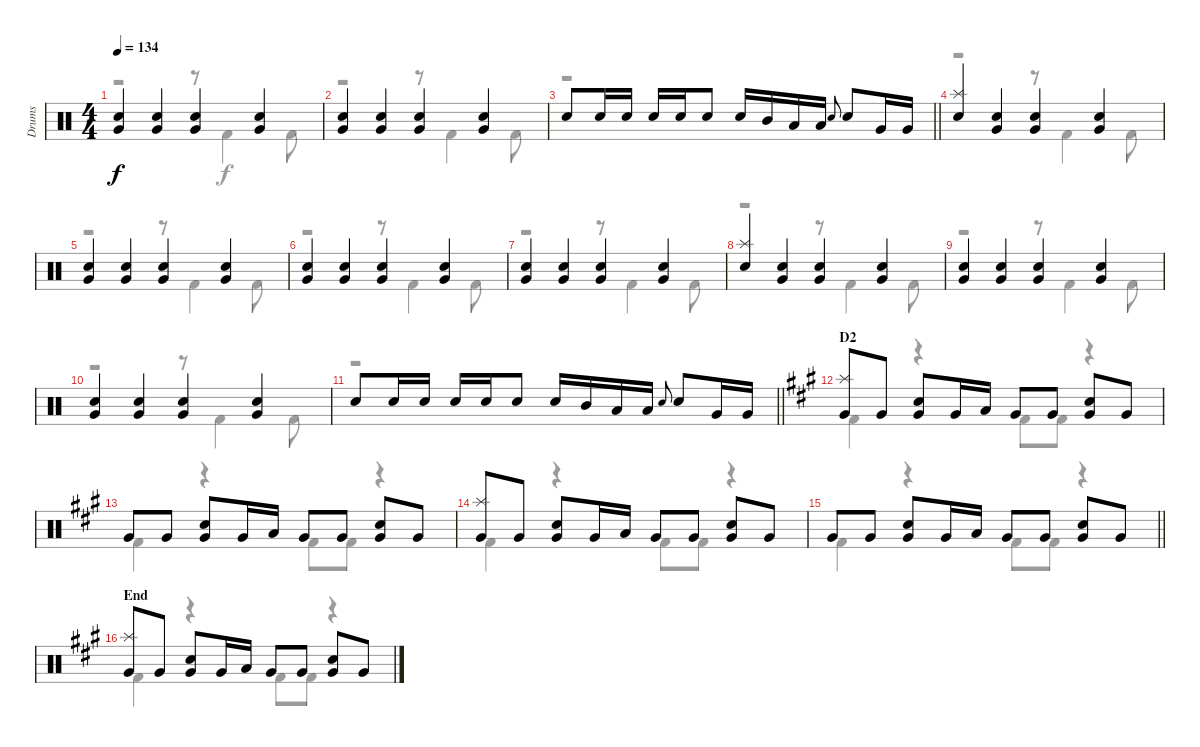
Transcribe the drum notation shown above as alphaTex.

\track ("Drums" "Drums") {instrument percussion}
\staff {score}
\articulation defaults
\voice
\ts (4 4)
\tempo 134
\clef neutral
\ks c
("Snare (hit) 2" "Very Low Tom (hit)").4{dy f} ("Snare (hit) 2" "Very Low Tom (hit)").4 ("Snare (hit) 2" "Very Low Tom (hit)").4 ("Snare (hit) 2" "Very Low Tom (hit)").4 |
("Snare (hit) 2" "Very Low Tom (hit)").4 ("Snare (hit) 2" "Very Low Tom (hit)").4 ("Snare (hit) 2" "Very Low Tom (hit)").4 ("Snare (hit) 2" "Very Low Tom (hit)").4 |
\barLineRight lightlight "Snare (hit) 2".8 "Snare (hit) 2".16 "Snare (hit) 2".16 "Snare (hit) 2".16 "Snare (hit) 2".16 "Snare (hit) 2".8 "Snare (hit) 2".16 "Mid Tom (hit)".16 "Low Tom (hit)".16 "Low Tom (hit)".16 "Snare (hit) 2".8{gr onbeat} "Snare (hit) 2".8 "Very Low Tom (hit)".16 "Very Low Tom (hit)".16
|
("Splash (hit)" "Snare (hit) 2").4 ("Snare (hit) 2" "Very Low Tom (hit)").4 ("Snare (hit) 2" "Very Low Tom (hit)").4 ("Snare (hit) 2" "Very Low Tom (hit)").4 |
("Snare (hit) 2" "Very Low Tom (hit)").4 ("Snare (hit) 2" "Very Low Tom (hit)").4 ("Snare (hit) 2" "Very Low Tom (hit)").4 ("Snare (hit) 2" "Very Low Tom (hit)").4 |
("Snare (hit) 2" "Very Low Tom (hit)").4 ("Snare (hit) 2" "Very Low Tom (hit)").4 ("Snare (hit) 2" "Very Low Tom (hit)").4 ("Snare (hit) 2" "Very Low Tom (hit)").4 |
("Snare (hit) 2" "Very Low Tom (hit)").4 ("Snare (hit) 2" "Very Low Tom (hit)").4 ("Snare (hit) 2" "Very Low Tom (hit)").4 ("Snare (hit) 2" "Very Low Tom (hit)").4 |
("Splash (hit)" "Snare (hit) 2").4 ("Snare (hit) 2" "Very Low Tom (hit)").4 ("Snare (hit) 2" "Very Low Tom (hit)").4 ("Snare (hit) 2" "Very Low Tom (hit)").4 |
("Snare (hit) 2" "Very Low Tom (hit)").4 ("Snare (hit) 2" "Very Low Tom (hit)").4 ("Snare (hit) 2" "Very Low Tom (hit)").4 ("Snare (hit) 2" "Very Low Tom (hit)").4 |
("Snare (hit) 2" "Very Low Tom (hit)").4 ("Snare (hit) 2" "Very Low Tom (hit)").4 ("Snare (hit) 2" "Very Low Tom (hit)").4 ("Snare (hit) 2" "Very Low Tom (hit)").4 |
\barLineRight lightlight "Snare (hit) 2".8 "Snare (hit) 2".16 "Snare (hit) 2".16 "Snare (hit) 2".16 "Snare (hit) 2".16 "Snare (hit) 2".8 "Snare (hit) 2".16 "Mid Tom (hit)".16 "Low Tom (hit)".16 "Low Tom (hit)".16 "Snare (hit) 2".8{gr onbeat} "Snare (hit) 2".8 "Very Low Tom (hit)".16 "Very Low Tom (hit)".16
|
\section ("" "D2")
\ks a
("Splash (hit)" "Very Low Tom (hit)").8 "Very Low Tom (hit)".8 ("Very Low Tom (hit)" "Snare (hit) 2").8 "Very Low Tom (hit)".16 "Low Tom (hit)".16 "Very Low Tom (hit)".8 "Very Low Tom (hit)".8 ("Very Low Tom (hit)" "Snare (hit) 2").8 "Very Low Tom (hit)".8 |
"Very Low Tom (hit)".8 "Very Low Tom (hit)".8 ("Very Low Tom (hit)" "Snare (hit) 2").8 "Very Low Tom (hit)".16 "Low Tom (hit)".16 "Very Low Tom (hit)".8 "Very Low Tom (hit)".8 ("Very Low Tom (hit)" "Snare (hit) 2").8 "Very Low Tom (hit)".8 |
("Splash (hit)" "Very Low Tom (hit)").8 "Very Low Tom (hit)".8 ("Very Low Tom (hit)" "Snare (hit) 2").8 "Very Low Tom (hit)".16 "Low Tom (hit)".16 "Very Low Tom (hit)".8 "Very Low Tom (hit)".8 ("Very Low Tom (hit)" "Snare (hit) 2").8 "Very Low Tom (hit)".8 |
\barLineRight lightlight "Very Low Tom (hit)".8 "Very Low Tom (hit)".8
("Very Low Tom (hit)" "Snare (hit) 2").8 "Very Low Tom (hit)".16 "Low Tom (hit)".16 "Very Low Tom (hit)".8 "Very Low Tom (hit)".8 ("Very Low Tom (hit)" "Snare (hit) 2").8 "Very Low Tom (hit)".8 |
\section ("" "End")
("Splash (hit)" "Very Low Tom (hit)").8 "Very Low Tom (hit)".8 ("Very Low Tom (hit)" "Snare (hit) 2").8 "Very Low Tom (hit)".16 "Low Tom (hit)".16 "Very Low Tom (hit)".8 "Very Low Tom (hit)".8 ("Very Low Tom (hit)" "Snare (hit) 2").8 "Very Low Tom (hit)".8
\voice
\clef neutral
\ottava regular
\simile none
\ks c
r.2{dy f} r.8 "Kick (hit) 2".4 "Kick (hit) 2".8 |
r.2 r.8 "Kick (hit) 2".4 "Kick (hit) 2".8 |
\barLineRight lightlight
r.1 |
r.2 r.8 "Kick (hit) 2".4 "Kick (hit) 2".8 |
r.2 r.8 "Kick (hit) 2".4 "Kick (hit) 2".8 |
r.2 r.8 "Kick (hit) 2".4 "Kick (hit) 2".8 |
r.2 r.8 "Kick (hit) 2".4 "Kick (hit) 2".8 |
r.2 r.8 "Kick (hit) 2".4 "Kick (hit) 2".8 |
r.2 r.8 "Kick (hit) 2".4 "Kick (hit) 2".8 |
r.2 r.8 "Kick (hit) 2".4 "Kick (hit) 2".8 |
\barLineRight lightlight
r.1 |
\ks a "Kick (hit) 2".4
r.4 "Kick (hit) 2".8 "Kick (hit) 2".8 r.4 |
"Kick (hit) 2".4 r.4 "Kick (hit) 2".8 "Kick (hit) 2".8 r.4 |
"Kick (hit) 2".4 r.4 "Kick (hit) 2".8 "Kick (hit) 2".8 r.4 |
\barLineRight lightlight "Kick (hit) 2".4
r.4 "Kick (hit) 2".8 "Kick (hit) 2".8 r.4 |
"Kick (hit) 2".4 r.4 "Kick (hit) 2".8 "Kick (hit) 2".8 r.4
